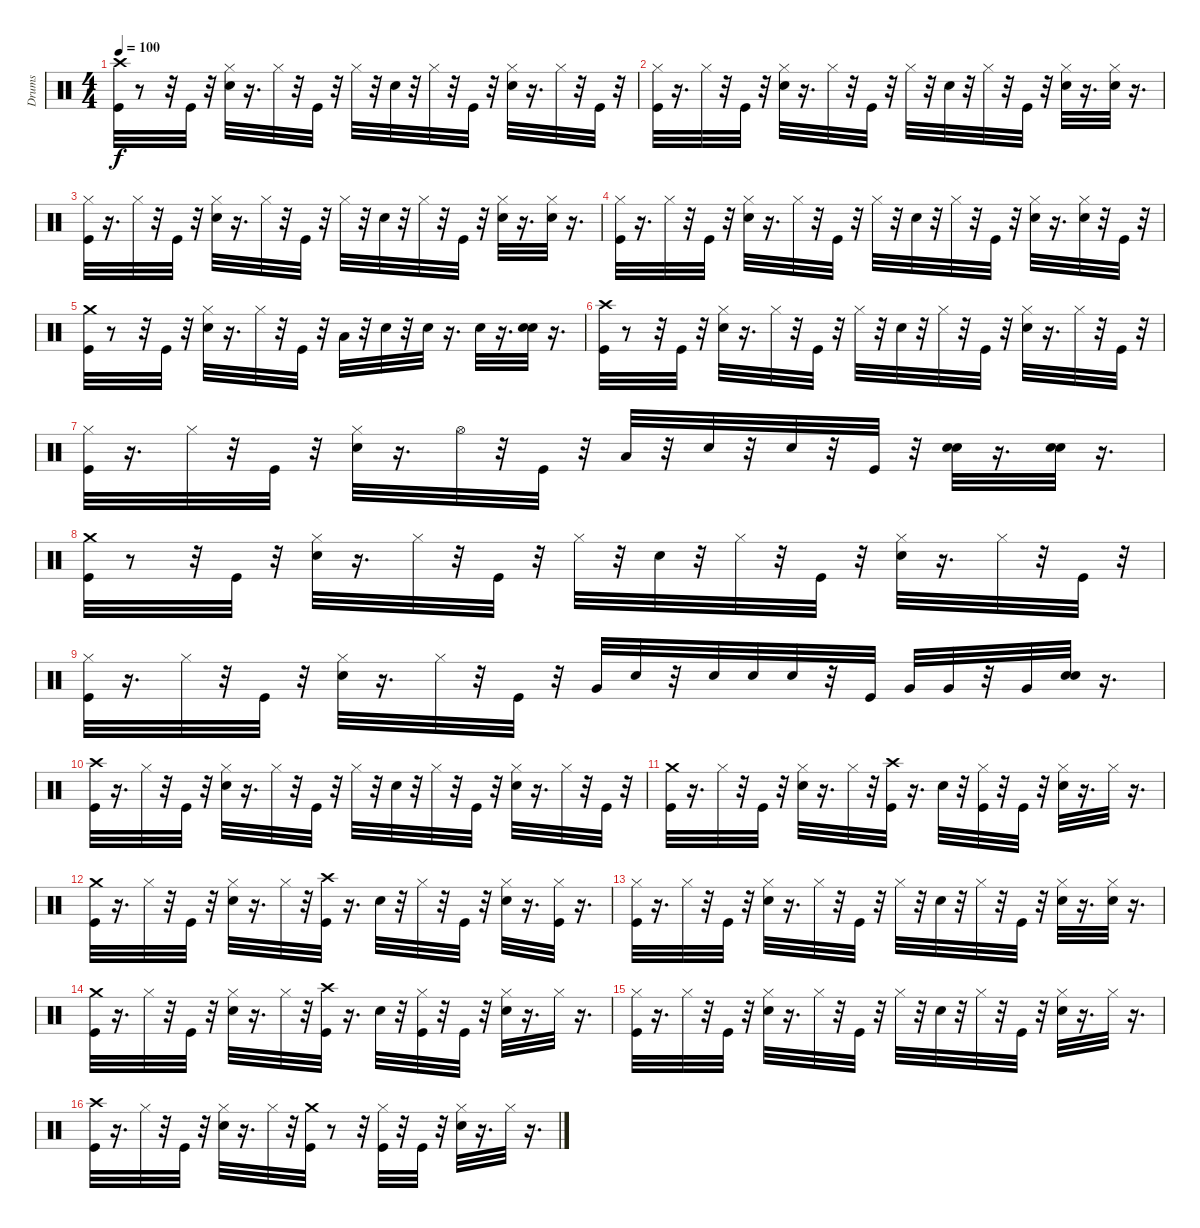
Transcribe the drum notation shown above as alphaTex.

\track ("Drums" "Drums") {instrument percussion}
\staff {score}
\articulation defaults
\ts (4 4)
\tempo 100
\clef neutral
\ks c
("Crash high (hit)" "Kick (hit)").32{dy f} r.8 r.32 "Kick (hit)".32 r.32 ("Hi-Hat (closed)" "Snare (hit) 2").32 r.16{d} "Hi-Hat (closed)".32 r.32 "Kick (hit)".32 r.32 "Hi-Hat (closed)".32 r.32 "Snare (hit) 2".32 r.32 "Hi-Hat (closed)".32 r.32 "Kick (hit)".32 r.32 ("Hi-Hat (closed)" "Snare (hit) 2").32 r.16{d} "Hi-Hat (closed)".32 r.32 "Kick (hit)".32 r.32 |
("Hi-Hat (closed)" "Kick (hit)").32 r.16{d} "Hi-Hat (closed)".32 r.32 "Kick (hit)".32 r.32 ("Hi-Hat (closed)" "Snare (hit) 2").32 r.16{d} "Hi-Hat (closed)".32 r.32 "Kick (hit)".32 r.32 "Hi-Hat (closed)".32 r.32 "Snare (hit) 2".32 r.32 "Hi-Hat (closed)".32 r.32 "Kick (hit)".32 r.32 ("Hi-Hat (closed)" "Snare (hit) 2").32 r.16{d} ("Hi-Hat (closed)" "Snare (hit) 2").32 r.16{d} |
("Kick (hit)" "Hi-Hat (closed)").32 r.16{d} "Hi-Hat (closed)".32 r.32 "Kick (hit)".32 r.32 ("Snare (hit) 2" "Hi-Hat (closed)").32 r.16{d} "Hi-Hat (closed)".32 r.32 "Kick (hit)".32 r.32 "Hi-Hat (closed)".32 r.32 "Snare (hit) 2".32 r.32 "Hi-Hat (closed)".32 r.32 "Kick (hit)".32 r.32 ("Snare (hit) 2" "Hi-Hat (closed)").32 r.16{d} ("Snare (hit) 2" "Hi-Hat (closed)").32 r.16{d} |
("Kick (hit)" "Hi-Hat (closed)").32 r.16{d} "Hi-Hat (closed)".32 r.32 "Kick (hit)".32 r.32 ("Snare (hit) 2" "Hi-Hat (closed)").32 r.16{d} "Hi-Hat (closed)".32 r.32 "Kick (hit)".32 r.32 "Hi-Hat (closed)".32 r.32 "Snare (hit) 2".32 r.32 "Hi-Hat (closed)".32 r.32 "Kick (hit)".32 r.32 ("Snare (hit) 2" "Hi-Hat (closed)").32 r.16{d} ("Snare (hit) 2" "Hi-Hat (closed)").32 r.32 "Kick (hit)".32 r.32 |
("Kick (hit)" "Crash medium (hit)").32 r.8 r.32 "Kick (hit)".32 r.32 ("Snare (hit) 2" "Hi-Hat (closed)").32 r.16{d} "Hi-Hat (closed)".32 r.32 "Kick (hit)".32 r.32 "Low Tom (hit)".32 r.32 "Snare (hit) 2".32 r.32 "Snare (hit) 2".32 r.16{d} "Snare (hit) 2".32 r.16{d} ("Electric Snare (hit)" "Snare (hit) 2").32 r.16{d} |
("Kick (hit)" "Crash high (hit)").32 r.8 r.32 "Kick (hit)".32 r.32 ("Snare (hit) 2" "Hi-Hat (closed)").32 r.16{d} "Hi-Hat (closed)".32 r.32 "Kick (hit)".32 r.32 "Hi-Hat (closed)".32 r.32 "Snare (hit) 2".32 r.32 "Hi-Hat (closed)".32 r.32 "Kick (hit)".32 r.32 ("Snare (hit) 2" "Hi-Hat (closed)").32 r.16{d} "Hi-Hat (closed)".32 r.32 "Kick (hit)".32 r.32 |
("Kick (hit)" "Hi-Hat (closed)").32 r.16{d} "Hi-Hat (closed)".32 r.32 "Kick (hit)".32 r.32 ("Snare (hit) 2" "Hi-Hat (closed)").32 r.16{d} "Hi-Hat (open)".32 r.32 "Kick (hit)".32 r.32 "Low Tom (hit)".32 r.32 "Snare (hit) 2".32 r.32 "Snare (hit) 2".32 r.32 "Kick (hit)".32 r.32 ("Electric Snare (hit)" "Snare (hit) 2").32 r.16{d} ("Electric Snare (hit)" "Snare (hit) 2").32 r.16{d} |
("Kick (hit)" "Crash medium (hit)").32 r.8 r.32 "Kick (hit)".32 r.32 ("Hi-Hat (closed)" "Snare (hit) 2").32 r.16{d} "Hi-Hat (closed)".32 r.32 "Kick (hit)".32 r.32 "Hi-Hat (closed)".32 r.32 "Snare (hit) 2".32 r.32 "Hi-Hat (closed)".32 r.32 "Kick (hit)".32 r.32 ("Hi-Hat (closed)" "Snare (hit) 2").32 r.16{d} "Hi-Hat (closed)".32 r.32 "Kick (hit)".32 r.32 |
("Kick (hit)" "Hi-Hat (closed)").32 r.16{d} "Hi-Hat (closed)".32 r.32 "Kick (hit)".32 r.32 ("Snare (hit) 2" "Hi-Hat (closed)").32 r.16{d} "Hi-Hat (closed)".32 r.32 "Kick (hit)".32 r.32 "Very Low Tom (hit)".32 "Electric Snare (hit)".32 r.32 "Electric Snare (hit)".32 "Electric Snare (hit)".32 "Electric Snare (hit)".32 r.32 "Kick (hit)".32 "Very Low Tom (hit)".32 "Very Low Tom (hit)".32 r.32 "Very Low Tom (hit)".32 ("Electric Snare (hit)" "Snare (hit) 2").32 r.16{d} |
("Kick (hit)" "Crash high (hit)").32 r.16{d} "Hi-Hat (closed)".32 r.32 "Kick (hit)".32 r.32 ("Snare (hit) 2" "Hi-Hat (closed)").32 r.16{d} "Hi-Hat (closed)".32 r.32 "Kick (hit)".32 r.32 "Hi-Hat (closed)".32 r.32 "Snare (hit) 2".32 r.32 "Hi-Hat (closed)".32 r.32 "Kick (hit)".32 r.32 ("Snare (hit) 2" "Hi-Hat (closed)").32 r.16{d} "Hi-Hat (closed)".32 r.32 "Kick (hit)".32 r.32 |
("Crash medium (hit)" "Kick (hit)").32 r.16{d} "Hi-Hat (closed)".32 r.32 "Kick (hit)".32 r.32 ("Hi-Hat (closed)" "Snare (hit) 2").32 r.16{d} "Hi-Hat (closed)".32 r.32 ("Crash high (hit)" "Kick (hit)").32 r.16{d} "Snare (hit) 2".32 r.32 ("Hi-Hat (closed)" "Kick (hit)").32 r.32 "Kick (hit)".32 r.32 ("Hi-Hat (closed)" "Snare (hit) 2").32 r.16{d} "Hi-Hat (closed)".32 r.16{d} |
("Crash medium (hit)" "Kick (hit)").32 r.16{d} "Hi-Hat (closed)".32 r.32 "Kick (hit)".32 r.32 ("Hi-Hat (closed)" "Snare (hit) 2").32 r.16{d} "Hi-Hat (closed)".32 r.32 ("Crash high (hit)" "Kick (hit)").32 r.16{d} "Snare (hit) 2".32 r.32 "Hi-Hat (closed)".32 r.32 "Kick (hit)".32 r.32 ("Hi-Hat (closed)" "Snare (hit) 2").32 r.16{d} ("Kick (hit)" "Hi-Hat (closed)").32 r.16{d} |
("Hi-Hat (closed)" "Kick (hit)").32 r.16{d} "Hi-Hat (closed)".32 r.32 "Kick (hit)".32 r.32 ("Hi-Hat (closed)" "Snare (hit) 2").32 r.16{d} "Hi-Hat (closed)".32 r.32 "Kick (hit)".32 r.32 "Hi-Hat (closed)".32 r.32 "Snare (hit) 2".32 r.32 "Hi-Hat (closed)".32 r.32 "Kick (hit)".32 r.32 ("Hi-Hat (closed)" "Snare (hit) 2").32 r.16{d} ("Hi-Hat (closed)" "Snare (hit) 2").32 r.16{d} |
("Crash medium (hit)" "Kick (hit)").32 r.16{d} "Hi-Hat (closed)".32 r.32 "Kick (hit)".32 r.32 ("Hi-Hat (closed)" "Snare (hit) 2").32 r.16{d} "Hi-Hat (closed)".32 r.32 ("Crash high (hit)" "Kick (hit)").32 r.16{d} "Snare (hit) 2".32 r.32 ("Hi-Hat (closed)" "Kick (hit)").32 r.32 "Kick (hit)".32 r.32 ("Hi-Hat (closed)" "Snare (hit) 2").32 r.16{d} "Hi-Hat (closed)".32 r.16{d} |
("Hi-Hat (closed)" "Kick (hit)").32 r.16{d} "Hi-Hat (closed)".32 r.32 "Kick (hit)".32 r.32 ("Hi-Hat (closed)" "Snare (hit) 2").32 r.16{d} "Hi-Hat (closed)".32 r.32 "Kick (hit)".32 r.32 "Hi-Hat (closed)".32 r.32 "Snare (hit) 2".32 r.32 "Hi-Hat (closed)".32 r.32 "Kick (hit)".32 r.32 ("Hi-Hat (closed)" "Snare (hit) 2").32 r.16{d} "Hi-Hat (closed)".32 r.16{d} |
("Crash high (hit)" "Kick (hit)").32 r.16{d} "Hi-Hat (closed)".32 r.32 "Kick (hit)".32 r.32 ("Hi-Hat (closed)" "Snare (hit) 2").32 r.16{d} "Hi-Hat (closed)".32 r.32 ("Crash medium (hit)" "Kick (hit)").32 r.8 r.32 ("Kick (hit)" "Hi-Hat (closed)").32 r.32 "Kick (hit)".32 r.32 ("Hi-Hat (closed)" "Snare (hit) 2").32 r.16{d} "Hi-Hat (closed)".32 r.16{d}
